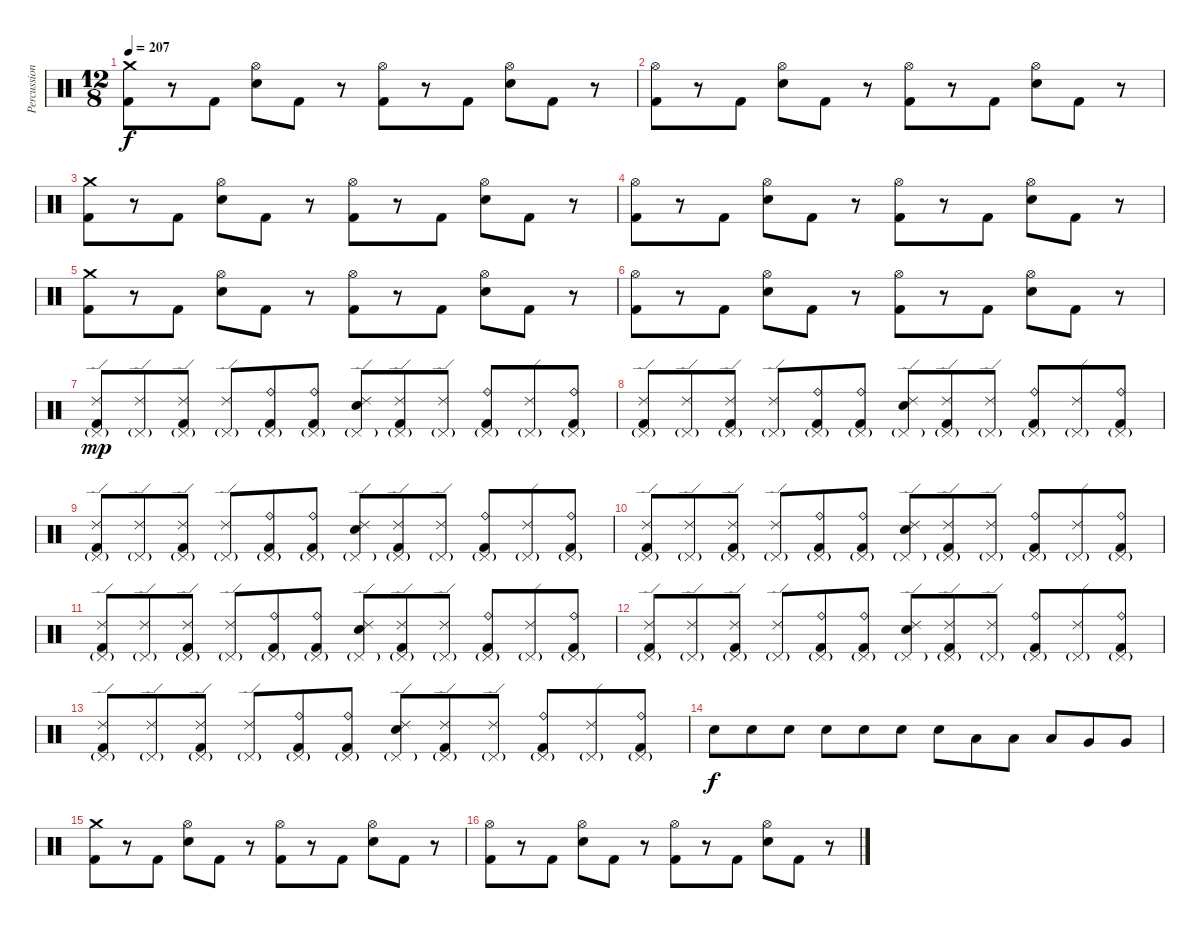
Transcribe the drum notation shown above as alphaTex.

\track ("Percussion" "Percussion") {instrument percussion}
\staff {score}
\articulation defaults
\ts (12 8)
\tempo 207
\clef neutral
\ks c
("Crash medium (hit)" "Kick (hit) 2").8{dy f} r.8 "Kick (hit) 2".8 ("Hi-Hat (open)" "Electric Snare (hit)").8 "Kick (hit) 2".8 r.8 ("Hi-Hat (open)" "Kick (hit) 2").8 r.8 "Kick (hit) 2".8 ("Hi-Hat (open)" "Electric Snare (hit)").8 "Kick (hit) 2".8 r.8 |
("Hi-Hat (open)" "Kick (hit) 2").8 r.8 "Kick (hit) 2".8 ("Hi-Hat (open)" "Electric Snare (hit)").8 "Kick (hit) 2".8 r.8 ("Hi-Hat (open)" "Kick (hit) 2").8 r.8 "Kick (hit) 2".8 ("Hi-Hat (open)" "Electric Snare (hit)").8 "Kick (hit) 2".8 r.8 |
("Crash medium (hit)" "Kick (hit) 2").8 r.8 "Kick (hit) 2".8 ("Hi-Hat (open)" "Electric Snare (hit)").8 "Kick (hit) 2".8 r.8 ("Hi-Hat (open)" "Kick (hit) 2").8 r.8 "Kick (hit) 2".8 ("Hi-Hat (open)" "Electric Snare (hit)").8 "Kick (hit) 2".8 r.8 |
("Hi-Hat (open)" "Kick (hit) 2").8 r.8 "Kick (hit) 2".8 ("Hi-Hat (open)" "Electric Snare (hit)").8 "Kick (hit) 2".8 r.8 ("Hi-Hat (open)" "Kick (hit) 2").8 r.8 "Kick (hit) 2".8 ("Hi-Hat (open)" "Electric Snare (hit)").8 "Kick (hit) 2".8 r.8 |
("Crash medium (hit)" "Kick (hit) 2").8 r.8 "Kick (hit) 2".8 ("Hi-Hat (open)" "Electric Snare (hit)").8 "Kick (hit) 2".8 r.8 ("Hi-Hat (open)" "Kick (hit) 2").8 r.8 "Kick (hit) 2".8 ("Hi-Hat (open)" "Electric Snare (hit)").8 "Kick (hit) 2".8 r.8 |
("Hi-Hat (open)" "Kick (hit) 2").8 r.8 "Kick (hit) 2".8 ("Hi-Hat (open)" "Electric Snare (hit)").8 "Kick (hit) 2".8 r.8 ("Hi-Hat (open)" "Kick (hit) 2").8 r.8 "Kick (hit) 2".8 ("Hi-Hat (open)" "Electric Snare (hit)").8 "Kick (hit) 2".8 r.8 |
("Ride (edge) 2" "Pedal Hi-Hat (hit)"{g} "Kick (hit) 2").8{dy mp} ("Ride (edge) 2" "Pedal Hi-Hat (hit)"{g}).8 ("Ride (edge) 2" "Pedal Hi-Hat (hit)"{g} "Kick (hit) 2").8 ("Ride (edge) 2" "Pedal Hi-Hat (hit)"{g}).8 ("Ride (bell)" "Pedal Hi-Hat (hit)"{g} "Kick (hit) 2").8 ("Ride (bell)" "Pedal Hi-Hat (hit)"{g} "Kick (hit) 2").8 ("Ride (edge) 2" "Pedal Hi-Hat (hit)"{g} "Electric Snare (hit)").8 ("Ride (edge) 2" "Pedal Hi-Hat (hit)"{g} "Kick (hit) 2").8 ("Ride (edge) 2" "Pedal Hi-Hat (hit)"{g}).8 ("Ride (bell)" "Pedal Hi-Hat (hit)"{g} "Kick (hit) 2").8 ("Ride (edge) 2" "Pedal Hi-Hat (hit)"{g}).8 ("Ride (bell)" "Pedal Hi-Hat (hit)"{g} "Kick (hit) 2").8 |
("Ride (edge) 2" "Pedal Hi-Hat (hit)"{g} "Kick (hit) 2").8 ("Ride (edge) 2" "Pedal Hi-Hat (hit)"{g}).8 ("Ride (edge) 2" "Pedal Hi-Hat (hit)"{g} "Kick (hit) 2").8 ("Ride (edge) 2" "Pedal Hi-Hat (hit)"{g}).8 ("Ride (bell)" "Pedal Hi-Hat (hit)"{g} "Kick (hit) 2").8 ("Ride (bell)" "Pedal Hi-Hat (hit)"{g} "Kick (hit) 2").8 ("Ride (edge) 2" "Pedal Hi-Hat (hit)"{g} "Electric Snare (hit)").8 ("Ride (edge) 2" "Pedal Hi-Hat (hit)"{g} "Kick (hit) 2").8 ("Ride (edge) 2" "Pedal Hi-Hat (hit)"{g}).8 ("Ride (bell)" "Pedal Hi-Hat (hit)"{g} "Kick (hit) 2").8 ("Ride (edge) 2" "Pedal Hi-Hat (hit)"{g}).8 ("Ride (bell)" "Pedal Hi-Hat (hit)"{g} "Kick (hit) 2").8 |
("Ride (edge) 2" "Pedal Hi-Hat (hit)"{g} "Kick (hit) 2").8 ("Ride (edge) 2" "Pedal Hi-Hat (hit)"{g}).8 ("Ride (edge) 2" "Pedal Hi-Hat (hit)"{g} "Kick (hit) 2").8 ("Ride (edge) 2" "Pedal Hi-Hat (hit)"{g}).8 ("Ride (bell)" "Pedal Hi-Hat (hit)"{g} "Kick (hit) 2").8 ("Ride (bell)" "Pedal Hi-Hat (hit)"{g} "Kick (hit) 2").8 ("Ride (edge) 2" "Pedal Hi-Hat (hit)"{g} "Electric Snare (hit)").8 ("Ride (edge) 2" "Pedal Hi-Hat (hit)"{g} "Kick (hit) 2").8 ("Ride (edge) 2" "Pedal Hi-Hat (hit)"{g}).8 ("Ride (bell)" "Pedal Hi-Hat (hit)"{g} "Kick (hit) 2").8 ("Ride (edge) 2" "Pedal Hi-Hat (hit)"{g}).8 ("Ride (bell)" "Pedal Hi-Hat (hit)"{g} "Kick (hit) 2").8 |
("Ride (edge) 2" "Pedal Hi-Hat (hit)"{g} "Kick (hit) 2").8 ("Ride (edge) 2" "Pedal Hi-Hat (hit)"{g}).8 ("Ride (edge) 2" "Pedal Hi-Hat (hit)"{g} "Kick (hit) 2").8 ("Ride (edge) 2" "Pedal Hi-Hat (hit)"{g}).8 ("Ride (bell)" "Pedal Hi-Hat (hit)"{g} "Kick (hit) 2").8 ("Ride (bell)" "Pedal Hi-Hat (hit)"{g} "Kick (hit) 2").8 ("Ride (edge) 2" "Pedal Hi-Hat (hit)"{g} "Electric Snare (hit)").8 ("Ride (edge) 2" "Pedal Hi-Hat (hit)"{g} "Kick (hit) 2").8 ("Ride (edge) 2" "Pedal Hi-Hat (hit)"{g}).8 ("Ride (bell)" "Pedal Hi-Hat (hit)"{g} "Kick (hit) 2").8 ("Ride (edge) 2" "Pedal Hi-Hat (hit)"{g}).8 ("Ride (bell)" "Pedal Hi-Hat (hit)"{g} "Kick (hit) 2").8 |
("Ride (edge) 2" "Pedal Hi-Hat (hit)"{g} "Kick (hit) 2").8 ("Ride (edge) 2" "Pedal Hi-Hat (hit)"{g}).8 ("Ride (edge) 2" "Pedal Hi-Hat (hit)"{g} "Kick (hit) 2").8 ("Ride (edge) 2" "Pedal Hi-Hat (hit)"{g}).8 ("Ride (bell)" "Pedal Hi-Hat (hit)"{g} "Kick (hit) 2").8 ("Ride (bell)" "Pedal Hi-Hat (hit)"{g} "Kick (hit) 2").8 ("Ride (edge) 2" "Pedal Hi-Hat (hit)"{g} "Electric Snare (hit)").8 ("Ride (edge) 2" "Pedal Hi-Hat (hit)"{g} "Kick (hit) 2").8 ("Ride (edge) 2" "Pedal Hi-Hat (hit)"{g}).8 ("Ride (bell)" "Pedal Hi-Hat (hit)"{g} "Kick (hit) 2").8 ("Ride (edge) 2" "Pedal Hi-Hat (hit)"{g}).8 ("Ride (bell)" "Pedal Hi-Hat (hit)"{g} "Kick (hit) 2").8 |
("Ride (edge) 2" "Pedal Hi-Hat (hit)"{g} "Kick (hit) 2").8 ("Ride (edge) 2" "Pedal Hi-Hat (hit)"{g}).8 ("Ride (edge) 2" "Pedal Hi-Hat (hit)"{g} "Kick (hit) 2").8 ("Ride (edge) 2" "Pedal Hi-Hat (hit)"{g}).8 ("Ride (bell)" "Pedal Hi-Hat (hit)"{g} "Kick (hit) 2").8 ("Ride (bell)" "Pedal Hi-Hat (hit)"{g} "Kick (hit) 2").8 ("Ride (edge) 2" "Pedal Hi-Hat (hit)"{g} "Electric Snare (hit)").8 ("Ride (edge) 2" "Pedal Hi-Hat (hit)"{g} "Kick (hit) 2").8 ("Ride (edge) 2" "Pedal Hi-Hat (hit)"{g}).8 ("Ride (bell)" "Pedal Hi-Hat (hit)"{g} "Kick (hit) 2").8 ("Ride (edge) 2" "Pedal Hi-Hat (hit)"{g}).8 ("Ride (bell)" "Pedal Hi-Hat (hit)"{g} "Kick (hit) 2").8 |
("Ride (edge) 2" "Pedal Hi-Hat (hit)"{g} "Kick (hit) 2").8 ("Ride (edge) 2" "Pedal Hi-Hat (hit)"{g}).8 ("Ride (edge) 2" "Pedal Hi-Hat (hit)"{g} "Kick (hit) 2").8 ("Ride (edge) 2" "Pedal Hi-Hat (hit)"{g}).8 ("Ride (bell)" "Pedal Hi-Hat (hit)"{g} "Kick (hit) 2").8 ("Ride (bell)" "Pedal Hi-Hat (hit)"{g} "Kick (hit) 2").8 ("Ride (edge) 2" "Pedal Hi-Hat (hit)"{g} "Electric Snare (hit)").8 ("Ride (edge) 2" "Pedal Hi-Hat (hit)"{g} "Kick (hit) 2").8 ("Ride (edge) 2" "Pedal Hi-Hat (hit)"{g}).8 ("Ride (bell)" "Pedal Hi-Hat (hit)"{g} "Kick (hit) 2").8 ("Ride (edge) 2" "Pedal Hi-Hat (hit)"{g}).8 ("Ride (bell)" "Pedal Hi-Hat (hit)"{g} "Kick (hit) 2").8 |
"Electric Snare (hit)".8{dy f} "Electric Snare (hit)".8 "Electric Snare (hit)".8 "Electric Snare (hit)".8 "Electric Snare (hit)".8 "Electric Snare (hit)".8 "Electric Snare (hit)".8 "Low Tom (hit)".8 "Low Tom (hit)".8 "Low Tom (hit)".8 "Very Low Tom (hit)".8 "Very Low Tom (hit)".8 |
("Crash medium (hit)" "Kick (hit) 2").8 r.8 "Kick (hit) 2".8 ("Hi-Hat (open)" "Electric Snare (hit)").8 "Kick (hit) 2".8 r.8 ("Hi-Hat (open)" "Kick (hit) 2").8 r.8 "Kick (hit) 2".8 ("Hi-Hat (open)" "Electric Snare (hit)").8 "Kick (hit) 2".8 r.8 |
("Hi-Hat (open)" "Kick (hit) 2").8 r.8 "Kick (hit) 2".8 ("Hi-Hat (open)" "Electric Snare (hit)").8 "Kick (hit) 2".8 r.8 ("Hi-Hat (open)" "Kick (hit) 2").8 r.8 "Kick (hit) 2".8 ("Hi-Hat (open)" "Electric Snare (hit)").8 "Kick (hit) 2".8 r.8
